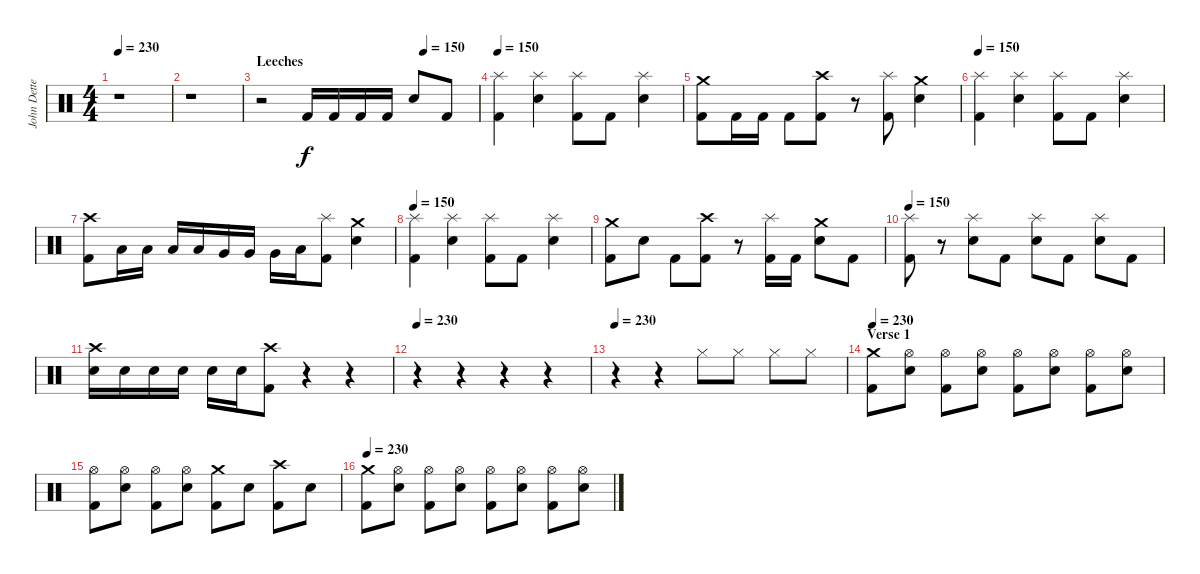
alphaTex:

\track ("John Dette" "John Dette") {instrument percussion}
\staff {score}
\articulation defaults
\ts (4 4)
\tempo 230
\clef neutral
\ks c
r.1{dy f} |
r.1 |
\section ("" "Leeches")
\tempo (150 0.75)
r.2 "Kick (hit) 2".16 "Kick (hit) 2".16 "Kick (hit) 2".16 "Kick (hit) 2".16 "Snare (hit) 2".8 "Kick (hit) 2".8 |
\tempo 150
("Splash (hit)" "Kick (hit) 2").4 ("Splash (hit)" "Snare (hit) 2").4 ("Splash (hit)" "Kick (hit) 2").8 "Kick (hit) 2".8 ("Splash (hit)" "Snare (hit) 2").4 |
("Crash medium (hit)" "Kick (hit) 2").8 "Kick (hit) 2".16 "Kick (hit) 2".16 "Kick (hit) 2".8 ("Crash high (hit)" "Kick (hit) 2").8 r.8 ("Splash (hit)" "Kick (hit) 2").8 ("Crash medium (hit)" "Snare (hit) 2").4 |
\tempo 150
("Splash (hit)" "Kick (hit) 2").4 ("Splash (hit)" "Snare (hit) 2").4 ("Splash (hit)" "Kick (hit) 2").8 "Kick (hit) 2".8 ("Splash (hit)" "Snare (hit) 2").4 |
("Crash high (hit)" "Kick (hit) 2").8 "Low Tom (hit)".16 "Low Tom (hit)".16 "Low Tom (hit)".16 "Low Tom (hit)".16 "Very Low Tom (hit)".16 "Very Low Tom (hit)".16 "Very Low Tom (hit)".16 "Low Floor Tom (hit)".16 ("Splash (hit)" "Kick (hit) 2").8 ("Crash medium (hit)" "Snare (hit) 2").4 |
\tempo 150
("Splash (hit)" "Kick (hit) 2").4 ("Splash (hit)" "Snare (hit) 2").4 ("Splash (hit)" "Kick (hit) 2").8 "Kick (hit) 2".8 ("Splash (hit)" "Snare (hit) 2").4 |
("Crash medium (hit)" "Kick (hit) 2").8 "Snare (hit) 2".8 "Kick (hit) 2".8 ("Crash high (hit)" "Kick (hit) 2").8 r.8 ("Splash (hit)" "Kick (hit) 2").16 "Kick (hit) 2".16 ("Crash medium (hit)" "Snare (hit) 2").8 "Kick (hit) 2".8 |
\tempo 150
("Splash (hit)" "Kick (hit) 2").8 r.8 ("Splash (hit)" "Snare (hit) 2").8 "Kick (hit) 2".8 ("Splash (hit)" "Snare (hit) 2").8 "Kick (hit) 2".8 ("Splash (hit)" "Snare (hit) 2").8 "Kick (hit) 2".8 |
("Crash high (hit)" "Snare (hit) 2").16 "Snare (hit) 2".16 "Snare (hit) 2".16 "Snare (hit) 2".16 "Snare (hit) 2".16 "Snare (hit) 2".16 ("Crash high (hit)" "Kick (hit) 2").8 r.4 r.4 |
\tempo 230
r.4 r.4 r.4 r.4 |
\tempo 230
r.4 r.4 "Hi-Hat (closed)".8 "Hi-Hat (closed)".8 "Hi-Hat (closed)".8 "Hi-Hat (closed)".8 |
\section ("" "Verse 1")
\tempo 230
("Crash medium (hit)" "Kick (hit) 2").8 ("Hi-Hat (open)" "Snare (hit) 2").8 ("Hi-Hat (open)" "Kick (hit) 2").8 ("Hi-Hat (open)" "Snare (hit) 2").8 ("Hi-Hat (open)" "Kick (hit) 2").8 ("Hi-Hat (open)" "Snare (hit) 2").8 ("Hi-Hat (open)" "Kick (hit) 2").8 ("Hi-Hat (open)" "Snare (hit) 2").8 |
("Hi-Hat (open)" "Kick (hit) 2").8 ("Hi-Hat (open)" "Snare (hit) 2").8 ("Hi-Hat (open)" "Kick (hit) 2").8 ("Hi-Hat (open)" "Snare (hit) 2").8 ("Crash medium (hit)" "Kick (hit) 2").8 "Snare (hit) 2".8 ("Crash high (hit)" "Kick (hit) 2").8 "Snare (hit) 2".8 |
\tempo 230
("Crash medium (hit)" "Kick (hit) 2").8 ("Hi-Hat (open)" "Snare (hit) 2").8 ("Hi-Hat (open)" "Kick (hit) 2").8 ("Hi-Hat (open)" "Snare (hit) 2").8 ("Hi-Hat (open)" "Kick (hit) 2").8 ("Hi-Hat (open)" "Snare (hit) 2").8 ("Hi-Hat (open)" "Kick (hit) 2").8 ("Hi-Hat (open)" "Snare (hit) 2").8
